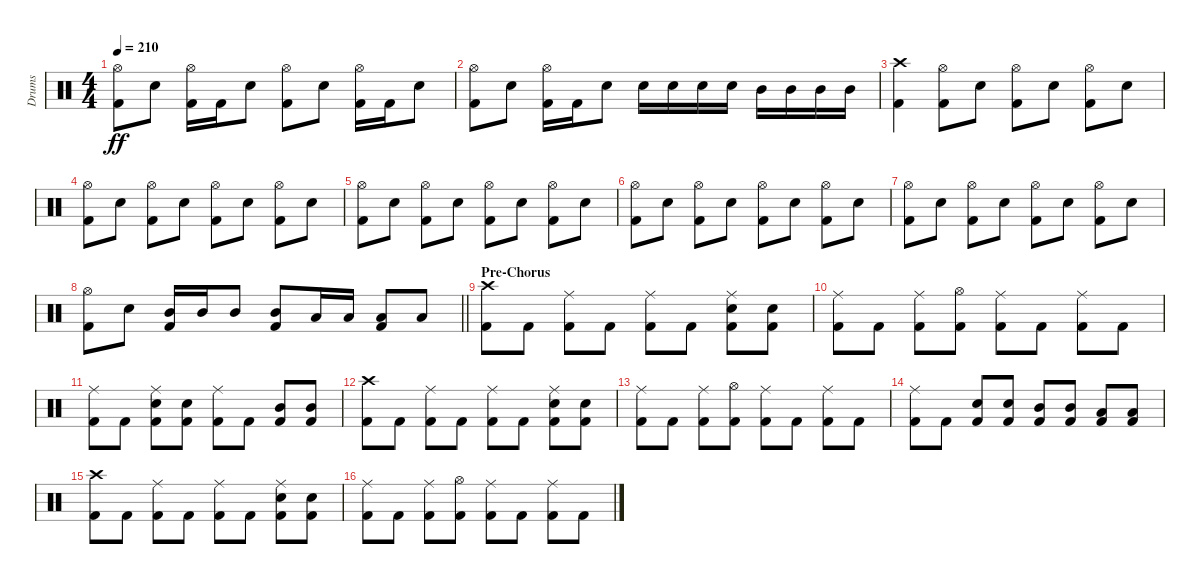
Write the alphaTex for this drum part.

\track ("Drums" "Drums") {instrument percussion}
\staff {score}
\articulation defaults
\ts (4 4)
\tempo 210
\clef neutral
\ks c
("Hi-Hat (open)" "Kick (hit) 2").8{dy ff} "Snare (hit) 2".8 ("Hi-Hat (open)" "Kick (hit) 2").16 "Kick (hit) 2".16 "Snare (hit) 2".8 ("Hi-Hat (open)" "Kick (hit) 2").8 "Snare (hit) 2".8 ("Hi-Hat (open)" "Kick (hit) 2").16 "Kick (hit) 2".16 "Snare (hit) 2".8 |
("Hi-Hat (open)" "Kick (hit) 2").8 "Snare (hit) 2".8 ("Hi-Hat (open)" "Kick (hit) 2").16 "Kick (hit) 2".16 "Snare (hit) 2".8 "Snare (hit) 2".16 "Snare (hit) 2".16 "Snare (hit) 2".16 "Snare (hit) 2".16 "Mid Tom (hit)".16 "Mid Tom (hit)".16 "Mid Tom (hit)".16 "Mid Tom (hit)".16 |
("Crash high (hit)" "Kick (hit) 2").4 ("Hi-Hat (open)" "Kick (hit) 2").8 "Snare (hit) 2".8 ("Hi-Hat (open)" "Kick (hit) 2").8 "Snare (hit) 2".8 ("Hi-Hat (open)" "Kick (hit) 2").8 "Snare (hit) 2".8 |
("Hi-Hat (open)" "Kick (hit) 2").8 "Snare (hit) 2".8 ("Hi-Hat (open)" "Kick (hit) 2").8 "Snare (hit) 2".8 ("Hi-Hat (open)" "Kick (hit) 2").8 "Snare (hit) 2".8 ("Hi-Hat (open)" "Kick (hit) 2").8 "Snare (hit) 2".8 |
("Hi-Hat (open)" "Kick (hit) 2").8 "Snare (hit) 2".8 ("Hi-Hat (open)" "Kick (hit) 2").8 "Snare (hit) 2".8 ("Hi-Hat (open)" "Kick (hit) 2").8 "Snare (hit) 2".8 ("Hi-Hat (open)" "Kick (hit) 2").8 "Snare (hit) 2".8 |
("Hi-Hat (open)" "Kick (hit) 2").8 "Snare (hit) 2".8 ("Hi-Hat (open)" "Kick (hit) 2").8 "Snare (hit) 2".8 ("Hi-Hat (open)" "Kick (hit) 2").8 "Snare (hit) 2".8 ("Hi-Hat (open)" "Kick (hit) 2").8 "Snare (hit) 2".8 |
("Hi-Hat (open)" "Kick (hit) 2").8 "Snare (hit) 2".8 ("Hi-Hat (open)" "Kick (hit) 2").8 "Snare (hit) 2".8 ("Hi-Hat (open)" "Kick (hit) 2").8 "Snare (hit) 2".8 ("Hi-Hat (open)" "Kick (hit) 2").8 "Snare (hit) 2".8 |
\barLineRight lightlight
("Hi-Hat (open)" "Kick (hit) 2").8 "Snare (hit) 2".8 ("Mid Tom (hit)" "Kick (hit) 2").16 "Mid Tom (hit)".16 "Mid Tom (hit)".8 ("Mid Tom (hit)" "Kick (hit) 2").8 "Low Tom (hit)".16 "Low Tom (hit)".16 ("Low Tom (hit)" "Kick (hit) 2").8 "Low Tom (hit)".8 |
\section ("" "Pre-Chorus")
("Crash high (hit)" "Kick (hit) 2").8 "Kick (hit) 2".8 ("Ride (middle)" "Kick (hit) 2").8 "Kick (hit) 2".8 ("Ride (middle)" "Kick (hit) 2").8 "Kick (hit) 2".8 ("Ride (middle)" "Snare (hit) 2" "Kick (hit) 2").8 ("Snare (hit) 2" "Kick (hit) 2").8 |
("Ride (middle)" "Kick (hit) 2").8 "Kick (hit) 2".8 ("Ride (middle)" "Kick (hit) 2").8 ("Hi-Hat (open)" "Kick (hit) 2").8 ("Ride (middle)" "Kick (hit) 2").8 "Kick (hit) 2".8 ("Ride (middle)" "Kick (hit) 2").8 "Kick (hit) 2".8 |
("Ride (middle)" "Kick (hit) 2").8 "Kick (hit) 2".8 ("Ride (middle)" "Snare (hit) 2" "Kick (hit) 2").8 ("Snare (hit) 2" "Kick (hit) 2").8 ("Ride (middle)" "Kick (hit) 2").8 "Kick (hit) 2".8 ("Mid Tom (hit)" "Kick (hit) 2").8 ("Mid Tom (hit)" "Kick (hit) 2").8 |
("Crash high (hit)" "Kick (hit) 2").8 "Kick (hit) 2".8 ("Ride (middle)" "Kick (hit) 2").8 "Kick (hit) 2".8 ("Ride (middle)" "Kick (hit) 2").8 "Kick (hit) 2".8 ("Ride (middle)" "Snare (hit) 2" "Kick (hit) 2").8 ("Snare (hit) 2" "Kick (hit) 2").8 |
("Ride (middle)" "Kick (hit) 2").8 "Kick (hit) 2".8 ("Ride (middle)" "Kick (hit) 2").8 ("Hi-Hat (open)" "Kick (hit) 2").8 ("Ride (middle)" "Kick (hit) 2").8 "Kick (hit) 2".8 ("Ride (middle)" "Kick (hit) 2").8 "Kick (hit) 2".8 |
("Ride (middle)" "Kick (hit) 2").8 "Kick (hit) 2".8 ("Snare (hit) 2" "Kick (hit) 2").8 ("Snare (hit) 2" "Kick (hit) 2").8 ("Mid Tom (hit)" "Kick (hit) 2").8 ("Mid Tom (hit)" "Kick (hit) 2").8 ("Low Tom (hit)" "Kick (hit) 2").8 ("Low Tom (hit)" "Kick (hit) 2").8 |
("Crash high (hit)" "Kick (hit) 2").8 "Kick (hit) 2".8 ("Ride (middle)" "Kick (hit) 2").8 "Kick (hit) 2".8 ("Ride (middle)" "Kick (hit) 2").8 "Kick (hit) 2".8 ("Ride (middle)" "Snare (hit) 2" "Kick (hit) 2").8 ("Snare (hit) 2" "Kick (hit) 2").8 |
("Ride (middle)" "Kick (hit) 2").8 "Kick (hit) 2".8 ("Ride (middle)" "Kick (hit) 2").8 ("Hi-Hat (open)" "Kick (hit) 2").8 ("Ride (middle)" "Kick (hit) 2").8 "Kick (hit) 2".8 ("Ride (middle)" "Kick (hit) 2").8 "Kick (hit) 2".8
